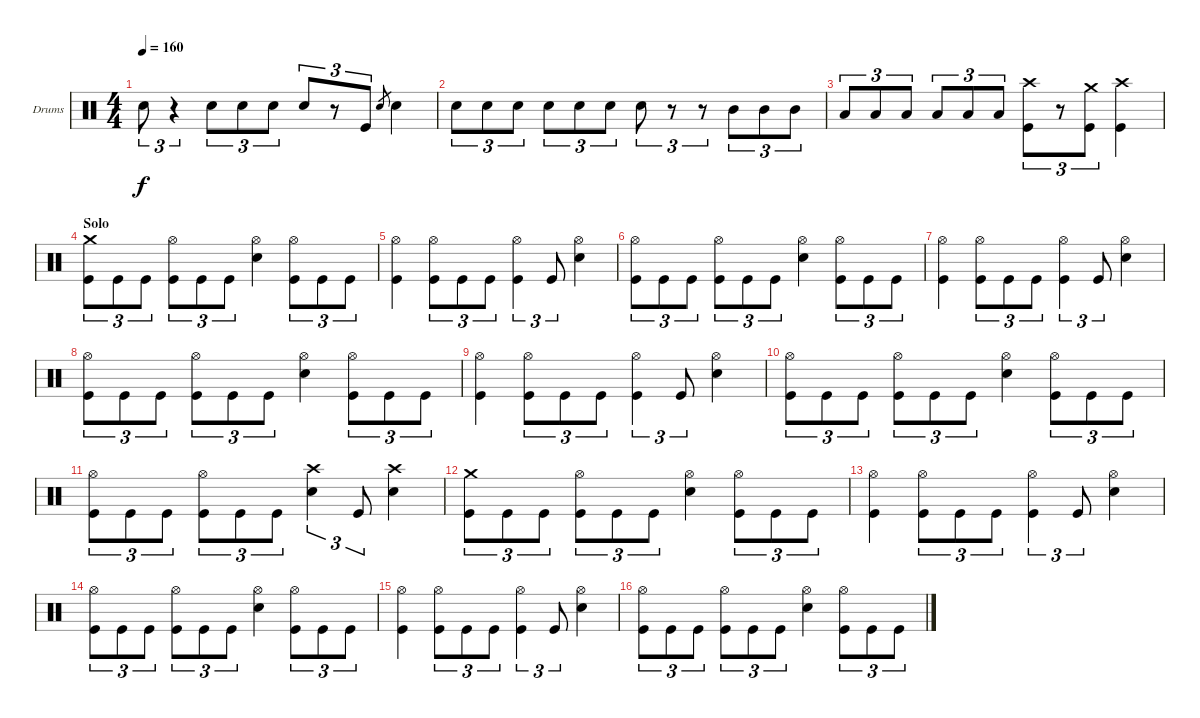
\bracketExtendMode groupsimilarinstruments
\firstSystemTrackNameOrientation horizontal
\otherSystemsTrackNameOrientation horizontal
\track ("Drumkit" "Drums") {instrument percussion}
\staff {score}
\articulation defaults
\ts (4 4)
\tempo 160
\clef neutral
\ks c "Snare (hit) 2".8{tu (3 2) dy f}
r.4{tu (3 2)} "Snare (hit) 2".8{tu (3 2)} "Snare (hit) 2".8{tu (3 2)} "Snare (hit) 2".8{tu (3 2)} "Snare (hit) 2".8{tu (3 2)} r.8{tu (3 2)} "Kick (hit)".8{tu (3 2)} "Snare (hit) 2".8{gr} "Snare (hit) 2".4 |
"Snare (hit) 2".8{tu (3 2)} "Snare (hit) 2".8{tu (3 2)} "Snare (hit) 2".8{tu (3 2)} "Snare (hit) 2".8{tu (3 2)} "Snare (hit) 2".8{tu (3 2)} "Snare (hit) 2".8{tu (3 2)} "Snare (hit) 2".8{tu (3 2)} r.8{tu (3 2)} r.8{tu (3 2)} "Mid Tom (hit)".8{tu (3 2)} "Mid Tom (hit)".8{tu (3 2)} "Mid Tom (hit)".8{tu (3 2)} |
"Low Tom (hit)".8{tu (3 2)} "Low Tom (hit)".8{tu (3 2)} "Low Tom (hit)".8{tu (3 2)} "Low Tom (hit)".8{tu (3 2)} "Low Tom (hit)".8{tu (3 2)} "Low Tom (hit)".8{tu (3 2)} ("Kick (hit)" "Crash high (hit)").8{tu (3 2)} r.8{tu (3 2)} ("Kick (hit)" "Crash medium (hit)").8{tu (3 2)} ("Kick (hit)" "Crash high (hit)").4 |
\section ("" "Solo")
("Crash medium (hit)" "Kick (hit)").8{tu (3 2)} "Kick (hit)".8{tu (3 2)} "Kick (hit)".8{tu (3 2)} ("Kick (hit)" "Hi-Hat (open)").8{tu (3 2)} "Kick (hit)".8{tu (3 2)} "Kick (hit)".8{tu (3 2)} ("Snare (hit) 2" "Hi-Hat (open)").4 ("Kick (hit)" "Hi-Hat (open)").8{tu (3 2)} "Kick (hit)".8{tu (3 2)} "Kick (hit)".8{tu (3 2)} |
("Kick (hit)" "Hi-Hat (open)").4 ("Hi-Hat (open)" "Kick (hit)").8{tu (3 2)} "Kick (hit)".8{tu (3 2)} "Kick (hit)".8{tu (3 2)} ("Hi-Hat (open)" "Kick (hit)").4{tu (3 2)} "Kick (hit)".8{tu (3 2)} ("Snare (hit) 2" "Hi-Hat (open)").4 |
("Kick (hit)" "Hi-Hat (open)").8{tu (3 2)} "Kick (hit)".8{tu (3 2)} "Kick (hit)".8{tu (3 2)} ("Kick (hit)" "Hi-Hat (open)").8{tu (3 2)} "Kick (hit)".8{tu (3 2)} "Kick (hit)".8{tu (3 2)} ("Snare (hit) 2" "Hi-Hat (open)").4 ("Kick (hit)" "Hi-Hat (open)").8{tu (3 2)} "Kick (hit)".8{tu (3 2)} "Kick (hit)".8{tu (3 2)} |
("Kick (hit)" "Hi-Hat (open)").4 ("Hi-Hat (open)" "Kick (hit)").8{tu (3 2)} "Kick (hit)".8{tu (3 2)} "Kick (hit)".8{tu (3 2)} ("Hi-Hat (open)" "Kick (hit)").4{tu (3 2)} "Kick (hit)".8{tu (3 2)} ("Snare (hit) 2" "Hi-Hat (open)").4 |
("Kick (hit)" "Hi-Hat (open)").8{tu (3 2)} "Kick (hit)".8{tu (3 2)} "Kick (hit)".8{tu (3 2)} ("Kick (hit)" "Hi-Hat (open)").8{tu (3 2)} "Kick (hit)".8{tu (3 2)} "Kick (hit)".8{tu (3 2)} ("Snare (hit) 2" "Hi-Hat (open)").4 ("Kick (hit)" "Hi-Hat (open)").8{tu (3 2)} "Kick (hit)".8{tu (3 2)} "Kick (hit)".8{tu (3 2)} |
("Kick (hit)" "Hi-Hat (open)").4 ("Hi-Hat (open)" "Kick (hit)").8{tu (3 2)} "Kick (hit)".8{tu (3 2)} "Kick (hit)".8{tu (3 2)} ("Hi-Hat (open)" "Kick (hit)").4{tu (3 2)} "Kick (hit)".8{tu (3 2)} ("Snare (hit) 2" "Hi-Hat (open)").4 |
("Kick (hit)" "Hi-Hat (open)").8{tu (3 2)} "Kick (hit)".8{tu (3 2)} "Kick (hit)".8{tu (3 2)} ("Kick (hit)" "Hi-Hat (open)").8{tu (3 2)} "Kick (hit)".8{tu (3 2)} "Kick (hit)".8{tu (3 2)} ("Snare (hit) 2" "Hi-Hat (open)").4 ("Kick (hit)" "Hi-Hat (open)").8{tu (3 2)} "Kick (hit)".8{tu (3 2)} "Kick (hit)".8{tu (3 2)} |
("Kick (hit)" "Hi-Hat (open)").8{tu (3 2)} "Kick (hit)".8{tu (3 2)} "Kick (hit)".8{tu (3 2)} ("Hi-Hat (open)" "Kick (hit)").8{tu (3 2)} "Kick (hit)".8{tu (3 2)} "Kick (hit)".8{tu (3 2)} ("Snare (hit) 2" "Crash high (hit)").4{tu (3 2)} "Kick (hit)".8{tu (3 2)} ("Snare (hit) 2" "Crash high (hit)").4 |
("Crash medium (hit)" "Kick (hit)").8{tu (3 2)} "Kick (hit)".8{tu (3 2)} "Kick (hit)".8{tu (3 2)} ("Kick (hit)" "Hi-Hat (open)").8{tu (3 2)} "Kick (hit)".8{tu (3 2)} "Kick (hit)".8{tu (3 2)} ("Snare (hit) 2" "Hi-Hat (open)").4 ("Kick (hit)" "Hi-Hat (open)").8{tu (3 2)} "Kick (hit)".8{tu (3 2)} "Kick (hit)".8{tu (3 2)} |
("Kick (hit)" "Hi-Hat (open)").4 ("Hi-Hat (open)" "Kick (hit)").8{tu (3 2)} "Kick (hit)".8{tu (3 2)} "Kick (hit)".8{tu (3 2)} ("Hi-Hat (open)" "Kick (hit)").4{tu (3 2)} "Kick (hit)".8{tu (3 2)} ("Snare (hit) 2" "Hi-Hat (open)").4 |
("Kick (hit)" "Hi-Hat (open)").8{tu (3 2)} "Kick (hit)".8{tu (3 2)} "Kick (hit)".8{tu (3 2)} ("Kick (hit)" "Hi-Hat (open)").8{tu (3 2)} "Kick (hit)".8{tu (3 2)} "Kick (hit)".8{tu (3 2)} ("Snare (hit) 2" "Hi-Hat (open)").4 ("Kick (hit)" "Hi-Hat (open)").8{tu (3 2)} "Kick (hit)".8{tu (3 2)} "Kick (hit)".8{tu (3 2)} |
("Kick (hit)" "Hi-Hat (open)").4 ("Hi-Hat (open)" "Kick (hit)").8{tu (3 2)} "Kick (hit)".8{tu (3 2)} "Kick (hit)".8{tu (3 2)} ("Hi-Hat (open)" "Kick (hit)").4{tu (3 2)} "Kick (hit)".8{tu (3 2)} ("Snare (hit) 2" "Hi-Hat (open)").4 |
("Kick (hit)" "Hi-Hat (open)").8{tu (3 2)} "Kick (hit)".8{tu (3 2)} "Kick (hit)".8{tu (3 2)} ("Kick (hit)" "Hi-Hat (open)").8{tu (3 2)} "Kick (hit)".8{tu (3 2)} "Kick (hit)".8{tu (3 2)} ("Snare (hit) 2" "Hi-Hat (open)").4 ("Kick (hit)" "Hi-Hat (open)").8{tu (3 2)} "Kick (hit)".8{tu (3 2)} "Kick (hit)".8{tu (3 2)}
